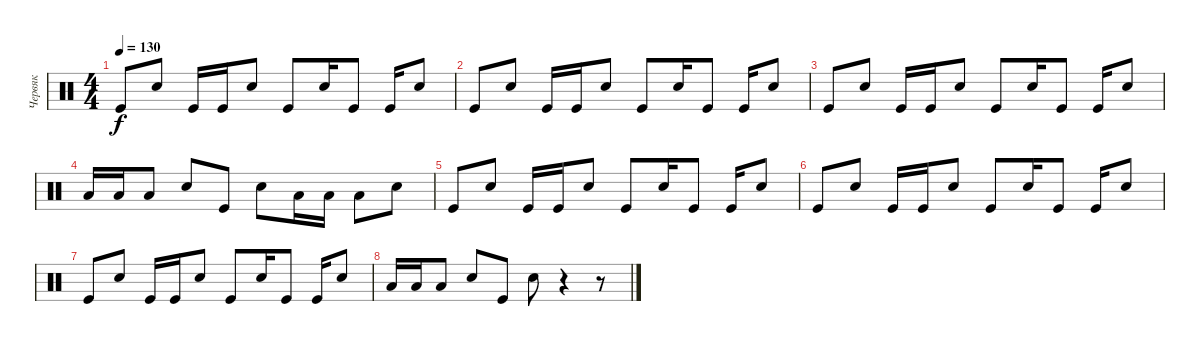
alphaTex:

\track ("Червяк" "Червяк") {instrument percussion}
\staff {score}
\articulation defaults
\ts (4 4)
\tempo 130
\clef neutral
\ks c "Kick (hit)".8{dy f} "Electric Snare (hit)".8 "Kick (hit)".16 "Kick (hit)".16 "Electric Snare (hit)".8 "Kick (hit)".8 "Electric Snare (hit)".16 "Kick (hit)".8 "Kick (hit)".16 "Electric Snare (hit)".8
|
"Kick (hit)".8 "Electric Snare (hit)".8 "Kick (hit)".16 "Kick (hit)".16 "Electric Snare (hit)".8 "Kick (hit)".8 "Electric Snare (hit)".16 "Kick (hit)".8 "Kick (hit)".16 "Electric Snare (hit)".8 |
"Kick (hit)".8 "Electric Snare (hit)".8 "Kick (hit)".16 "Kick (hit)".16 "Electric Snare (hit)".8 "Kick (hit)".8 "Electric Snare (hit)".16 "Kick (hit)".8 "Kick (hit)".16 "Electric Snare (hit)".8 |
"Low Floor Tom (hit)".16 "Low Floor Tom (hit)".16 "Low Floor Tom (hit)".8 "Electric Snare (hit)".8 "Kick (hit)".8 "Electric Snare (hit)".8 "Low Floor Tom (hit)".16 "Low Floor Tom (hit)".16 "Low Floor Tom (hit)".8 "Electric Snare (hit)".8 |
"Kick (hit)".8 "Electric Snare (hit)".8 "Kick (hit)".16 "Kick (hit)".16 "Electric Snare (hit)".8 "Kick (hit)".8 "Electric Snare (hit)".16 "Kick (hit)".8 "Kick (hit)".16 "Electric Snare (hit)".8 |
"Kick (hit)".8 "Electric Snare (hit)".8 "Kick (hit)".16 "Kick (hit)".16 "Electric Snare (hit)".8 "Kick (hit)".8 "Electric Snare (hit)".16 "Kick (hit)".8 "Kick (hit)".16 "Electric Snare (hit)".8 |
"Kick (hit)".8 "Electric Snare (hit)".8 "Kick (hit)".16 "Kick (hit)".16 "Electric Snare (hit)".8 "Kick (hit)".8 "Electric Snare (hit)".16 "Kick (hit)".8 "Kick (hit)".16 "Electric Snare (hit)".8 |
"Low Floor Tom (hit)".16 "Low Floor Tom (hit)".16 "Low Floor Tom (hit)".8 "Electric Snare (hit)".8 "Kick (hit)".8 "Electric Snare (hit)".8 r.4 r.8
